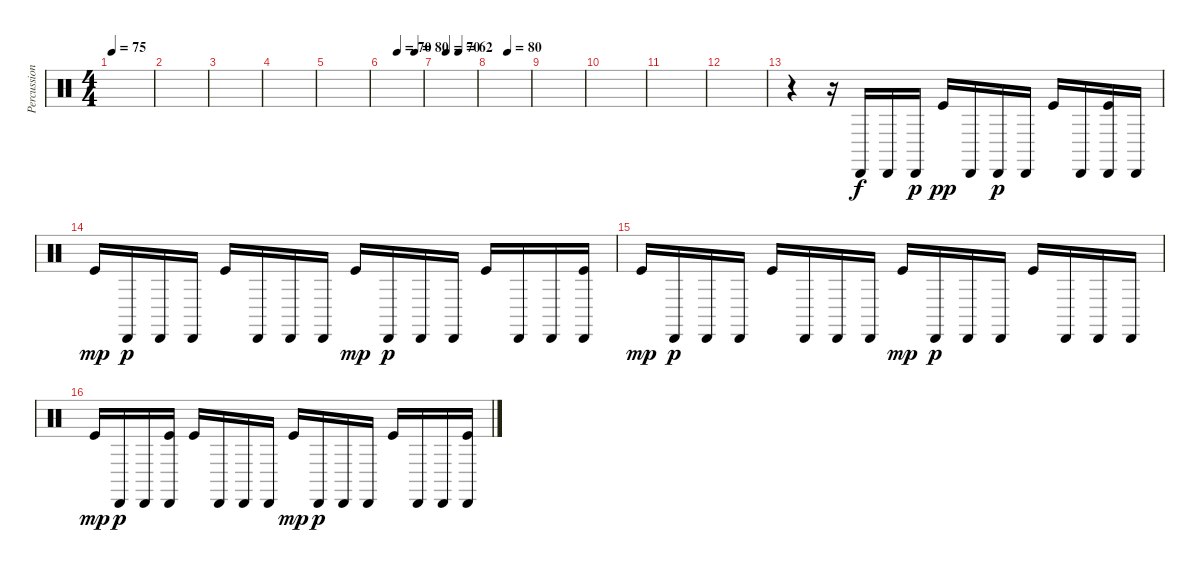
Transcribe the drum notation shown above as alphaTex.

\track ("Percussions" "Percussion") {instrument percussion}
\staff {score}
\articulation defaults
\ts (4 4)
\tempo 75
\tempo 80
\tempo 75
\clef neutral
\ks c
|
|
|
|
|
\tempo (70 0.375)
\tempo (80 0.8125)
|
\tempo (70 0.25)
\tempo (62 0.5625)
|
\tempo (80 0.4375)
|
|
|
|
|
r.4 r.16 "Cabasa (hit)".16 "Cabasa (hit)".16 "Cabasa (hit)".16{dy p} "Kick (hit)".16{dy pp} "Cabasa (hit)".16 "Cabasa (hit)".16{dy p} "Cabasa (hit)".16 "Kick (hit)".16 "Cabasa (hit)".16 ("Kick (hit)" "Cabasa (hit)").16 "Cabasa (hit)".16 |
"Kick (hit)".16{dy mp} "Cabasa (hit)".16{dy p} "Cabasa (hit)".16 "Cabasa (hit)".16 "Kick (hit)".16 "Cabasa (hit)".16 "Cabasa (hit)".16 "Cabasa (hit)".16 "Kick (hit)".16{dy mp} "Cabasa (hit)".16{dy p} "Cabasa (hit)".16 "Cabasa (hit)".16 "Kick (hit)".16 "Cabasa (hit)".16 "Cabasa (hit)".16 ("Kick (hit)" "Cabasa (hit)").16 |
"Kick (hit)".16{dy mp} "Cabasa (hit)".16{dy p} "Cabasa (hit)".16 "Cabasa (hit)".16 "Kick (hit)".16 "Cabasa (hit)".16 "Cabasa (hit)".16 "Cabasa (hit)".16 "Kick (hit)".16{dy mp} "Cabasa (hit)".16{dy p} "Cabasa (hit)".16 "Cabasa (hit)".16 "Kick (hit)".16 "Cabasa (hit)".16 "Cabasa (hit)".16 "Cabasa (hit)".16 |
"Kick (hit)".16{dy mp} "Cabasa (hit)".16{dy p} "Cabasa (hit)".16 ("Kick (hit)" "Cabasa (hit)").16 "Kick (hit)".16 "Cabasa (hit)".16 "Cabasa (hit)".16 "Cabasa (hit)".16 "Kick (hit)".16{dy mp} "Cabasa (hit)".16{dy p} "Cabasa (hit)".16 "Cabasa (hit)".16 "Kick (hit)".16 "Cabasa (hit)".16 "Cabasa (hit)".16 ("Kick (hit)" "Cabasa (hit)").16
